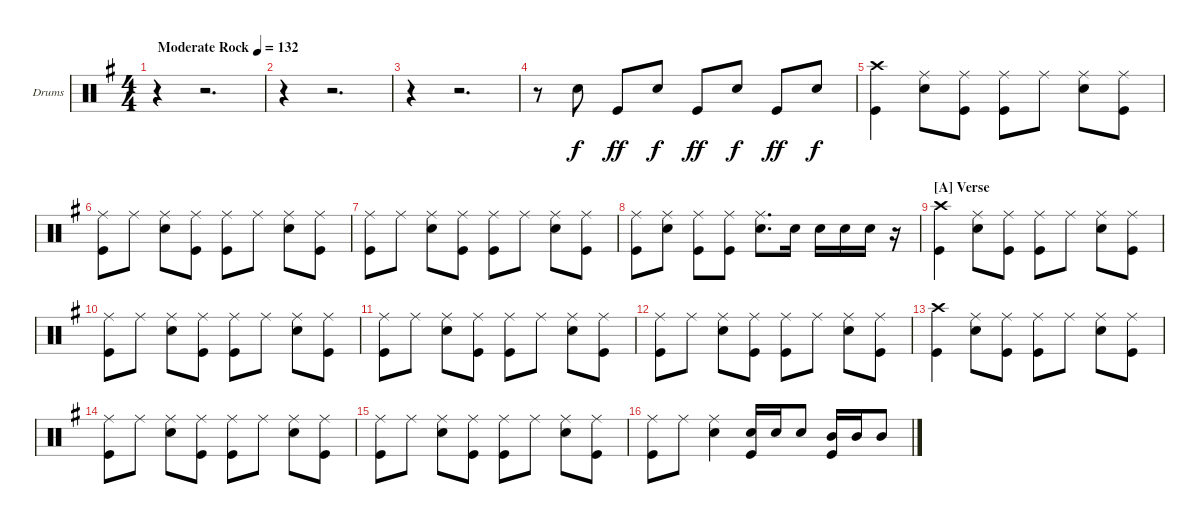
\defaultSystemsLayout 4
\bracketExtendMode groupsimilarinstruments
\firstSystemTrackNameOrientation horizontal
\otherSystemsTrackNameOrientation horizontal
\track ("Drumkit" "Drums") {instrument percussion}
\staff {score}
\articulation defaults
\ts (4 4)
\tempo (132 "Moderate Rock")
\clef neutral
\scale
1.14628
\ks g
r.4{dy f} r.2{d} |
\scale
0.92686 r.4 r.2{d} |
\scale
0.92686 r.4 r.2{d} |
\scale
1.08575 r.8 "Snare (hit) 2".8 "Kick (hit)".8{dy ff} "Snare (hit) 2".8{dy f} "Kick (hit)".8{dy ff} "Snare (hit) 2".8{dy f} "Kick (hit)".8{dy ff} "Snare (hit) 2".8{dy f} |
\scale
0.957125 ("Crash high (hit)" "Kick (hit)").4 ("Ride (middle)" "Snare (hit) 2").8 ("Ride (middle)" "Kick (hit)").8 ("Ride (middle)" "Kick (hit)").8 "Ride (middle)".8 ("Ride (middle)" "Snare (hit) 2").8 ("Ride (middle)" "Kick (hit)").8 |
\scale
0.957125 ("Ride (middle)" "Kick (hit)").8 "Ride (middle)".8 ("Ride (middle)" "Snare (hit) 2").8 ("Ride (middle)" "Kick (hit)").8 ("Ride (middle)" "Kick (hit)").8 "Ride (middle)".8 ("Ride (middle)" "Snare (hit) 2").8 ("Ride (middle)" "Kick (hit)").8 |
\scale
1.08575 ("Ride (middle)" "Kick (hit)").8 "Ride (middle)".8 ("Ride (middle)" "Snare (hit) 2").8 ("Ride (middle)" "Kick (hit)").8 ("Ride (middle)" "Kick (hit)").8 "Ride (middle)".8 ("Ride (middle)" "Snare (hit) 2").8 ("Ride (middle)" "Kick (hit)").8 |
\scale
0.957125 ("Ride (middle)" "Kick (hit)").8 ("Ride (middle)" "Snare (hit) 2").8 ("Ride (middle)" "Kick (hit)").8 ("Ride (middle)" "Kick (hit)").8 ("Ride (middle)" "Snare (hit) 2").8{d} "Snare (hit) 2".16 "Snare (hit) 2".16 "Snare (hit) 2".16 "Snare (hit) 2".16 r.16 |
\section ("A" "Verse")
\scale
0.957125 ("Crash high (hit)" "Kick (hit)").4 ("Ride (middle)" "Snare (hit) 2").8 ("Ride (middle)" "Kick (hit)").8 ("Ride (middle)" "Kick (hit)").8 "Ride (middle)".8 ("Ride (middle)" "Snare (hit) 2").8 ("Ride (middle)" "Kick (hit)").8 |
\scale
1.08575 ("Ride (middle)" "Kick (hit)").8 "Ride (middle)".8 ("Ride (middle)" "Snare (hit) 2").8 ("Ride (middle)" "Kick (hit)").8 ("Ride (middle)" "Kick (hit)").8 "Ride (middle)".8 ("Ride (middle)" "Snare (hit) 2").8 ("Ride (middle)" "Kick (hit)").8 |
\scale
0.957125 ("Ride (middle)" "Kick (hit)").8 "Ride (middle)".8 ("Ride (middle)" "Snare (hit) 2").8 ("Ride (middle)" "Kick (hit)").8 ("Ride (middle)" "Kick (hit)").8 "Ride (middle)".8 ("Ride (middle)" "Snare (hit) 2").8 ("Ride (middle)" "Kick (hit)").8 |
\scale
0.957125 ("Ride (middle)" "Kick (hit)").8 "Ride (middle)".8 ("Ride (middle)" "Snare (hit) 2").8 ("Ride (middle)" "Kick (hit)").8 ("Ride (middle)" "Kick (hit)").8 "Ride (middle)".8 ("Ride (middle)" "Snare (hit) 2").8 ("Ride (middle)" "Kick (hit)").8 |
\scale
1.08575 ("Crash high (hit)" "Kick (hit)").4 ("Ride (middle)" "Snare (hit) 2").8 ("Ride (middle)" "Kick (hit)").8 ("Ride (middle)" "Kick (hit)").8 "Ride (middle)".8 ("Ride (middle)" "Snare (hit) 2").8 ("Ride (middle)" "Kick (hit)").8 |
\scale
0.957125 ("Ride (middle)" "Kick (hit)").8 "Ride (middle)".8 ("Ride (middle)" "Snare (hit) 2").8 ("Ride (middle)" "Kick (hit)").8 ("Ride (middle)" "Kick (hit)").8 "Ride (middle)".8 ("Ride (middle)" "Snare (hit) 2").8 ("Ride (middle)" "Kick (hit)").8 |
\scale
0.957125 ("Ride (middle)" "Kick (hit)").8 "Ride (middle)".8 ("Ride (middle)" "Snare (hit) 2").8 ("Ride (middle)" "Kick (hit)").8 ("Ride (middle)" "Kick (hit)").8 "Ride (middle)".8 ("Ride (middle)" "Snare (hit) 2").8 ("Ride (middle)" "Kick (hit)").8 |
\scale
1.08575 ("Ride (middle)" "Kick (hit)").8 "Ride (middle)".8 ("Ride (middle)" "Snare (hit) 2").4 ("Snare (hit) 2" "Kick (hit)").16 "Snare (hit) 2".16 "Snare (hit) 2".8 ("Mid Tom (hit)" "Kick (hit)").16 "Mid Tom (hit)".16 "Mid Tom (hit)".8
